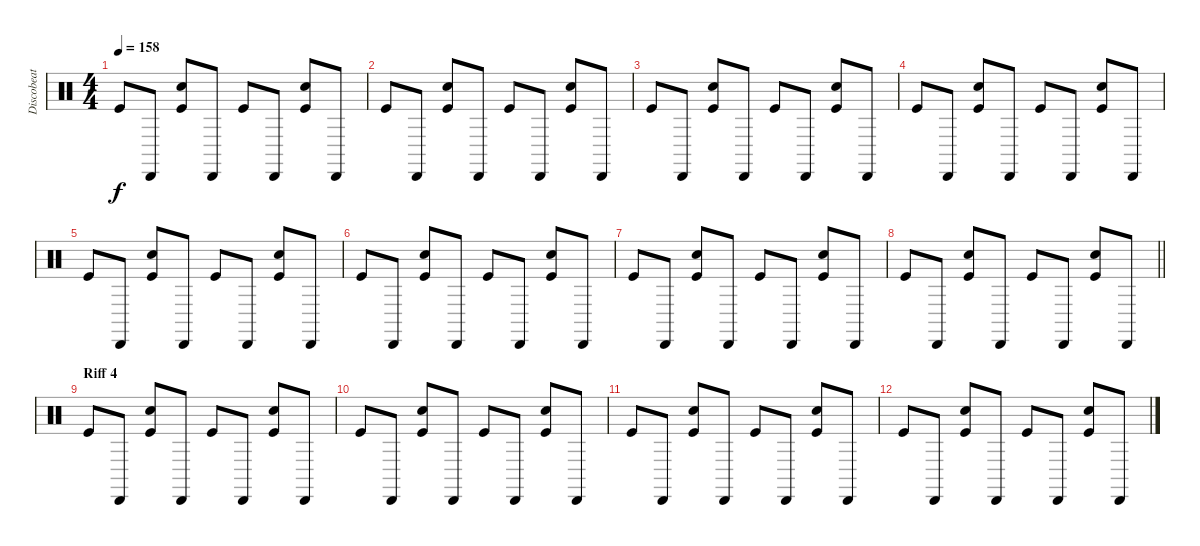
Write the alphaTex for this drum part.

\track ("Discobeat" "Discobeat") {instrument percussion}
\staff {score}
\articulation defaults
\ts (4 4)
\tempo 158
\clef neutral
\ks c "Kick (hit)".8{dy f} "Cabasa (hit)".8
("Kick (hit)" "Electric Snare (hit)").8 "Cabasa (hit)".8 "Kick (hit)".8 "Cabasa (hit)".8 ("Kick (hit)" "Electric Snare (hit)").8 "Cabasa (hit)".8 |
"Kick (hit)".8 "Cabasa (hit)".8 ("Kick (hit)" "Electric Snare (hit)").8 "Cabasa (hit)".8 "Kick (hit)".8 "Cabasa (hit)".8 ("Kick (hit)" "Electric Snare (hit)").8 "Cabasa (hit)".8 |
"Kick (hit)".8 "Cabasa (hit)".8 ("Kick (hit)" "Electric Snare (hit)").8 "Cabasa (hit)".8 "Kick (hit)".8 "Cabasa (hit)".8 ("Kick (hit)" "Electric Snare (hit)").8 "Cabasa (hit)".8 |
"Kick (hit)".8 "Cabasa (hit)".8 ("Kick (hit)" "Electric Snare (hit)").8 "Cabasa (hit)".8 "Kick (hit)".8 "Cabasa (hit)".8 ("Kick (hit)" "Electric Snare (hit)").8 "Cabasa (hit)".8 |
"Kick (hit)".8 "Cabasa (hit)".8 ("Kick (hit)" "Electric Snare (hit)").8 "Cabasa (hit)".8 "Kick (hit)".8 "Cabasa (hit)".8 ("Kick (hit)" "Electric Snare (hit)").8 "Cabasa (hit)".8 |
"Kick (hit)".8 "Cabasa (hit)".8 ("Kick (hit)" "Electric Snare (hit)").8 "Cabasa (hit)".8 "Kick (hit)".8 "Cabasa (hit)".8 ("Kick (hit)" "Electric Snare (hit)").8 "Cabasa (hit)".8 |
"Kick (hit)".8 "Cabasa (hit)".8 ("Kick (hit)" "Electric Snare (hit)").8 "Cabasa (hit)".8 "Kick (hit)".8 "Cabasa (hit)".8 ("Kick (hit)" "Electric Snare (hit)").8 "Cabasa (hit)".8 |
\barLineRight lightlight "Kick (hit)".8 "Cabasa (hit)".8
("Kick (hit)" "Electric Snare (hit)").8 "Cabasa (hit)".8 "Kick (hit)".8 "Cabasa (hit)".8 ("Kick (hit)" "Electric Snare (hit)").8 "Cabasa (hit)".8 |
\section ("" "Riff 4")
"Kick (hit)".8 "Cabasa (hit)".8 ("Kick (hit)" "Electric Snare (hit)").8 "Cabasa (hit)".8 "Kick (hit)".8 "Cabasa (hit)".8 ("Kick (hit)" "Electric Snare (hit)").8 "Cabasa (hit)".8 |
"Kick (hit)".8 "Cabasa (hit)".8 ("Kick (hit)" "Electric Snare (hit)").8 "Cabasa (hit)".8 "Kick (hit)".8 "Cabasa (hit)".8 ("Kick (hit)" "Electric Snare (hit)").8 "Cabasa (hit)".8 |
"Kick (hit)".8 "Cabasa (hit)".8 ("Kick (hit)" "Electric Snare (hit)").8 "Cabasa (hit)".8 "Kick (hit)".8 "Cabasa (hit)".8 ("Kick (hit)" "Electric Snare (hit)").8 "Cabasa (hit)".8 |
"Kick (hit)".8 "Cabasa (hit)".8 ("Kick (hit)" "Electric Snare (hit)").8 "Cabasa (hit)".8 "Kick (hit)".8 "Cabasa (hit)".8 ("Kick (hit)" "Electric Snare (hit)").8 "Cabasa (hit)".8
